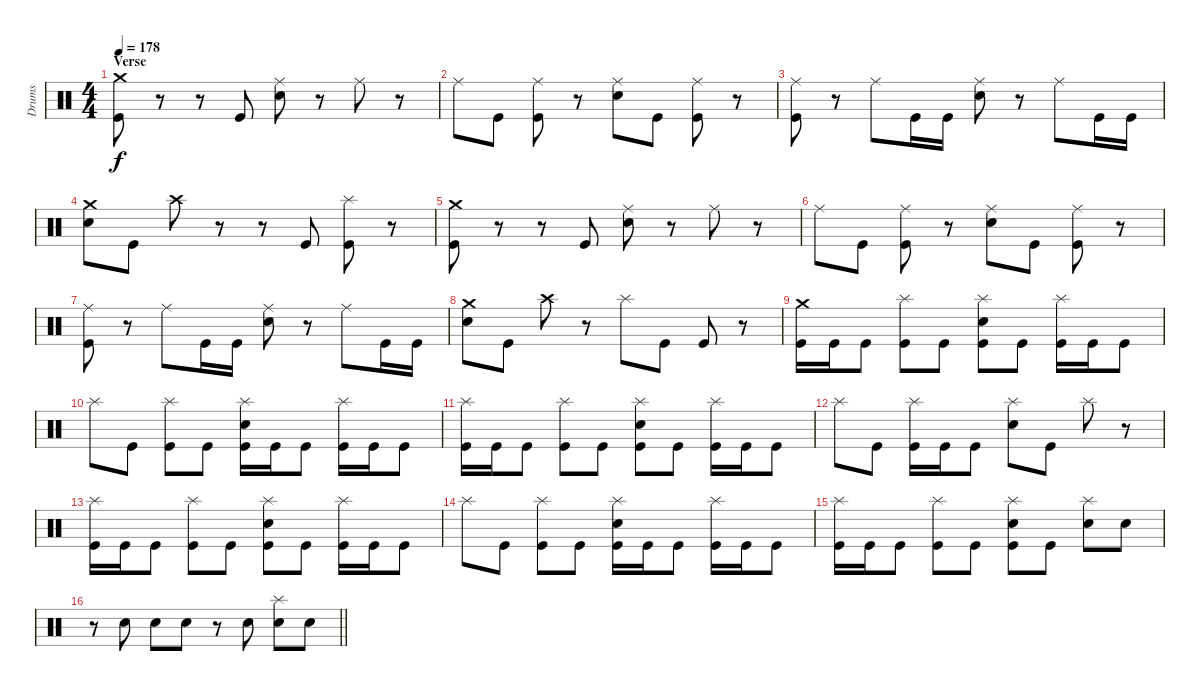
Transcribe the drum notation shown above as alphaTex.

\track ("Drums" "Drums") {instrument percussion}
\staff {score}
\articulation defaults
\ts (4 4)
\section ("" "Verse")
\tempo 178
\clef neutral
\ks c
("Crash medium (hit)" "Kick (hit)").8{dy f} r.8 r.8 "Kick (hit)".8 ("Ride (middle)" "Electric Snare (hit)").8 r.8 "Ride (middle)".8 r.8 |
"Ride (middle)".8 "Kick (hit)".8 ("Ride (middle)" "Kick (hit)").8 r.8 ("Ride (middle)" "Electric Snare (hit)").8 "Kick (hit)".8 ("Ride (middle)" "Kick (hit)").8 r.8 |
("Ride (middle)" "Kick (hit)").8 r.8 "Ride (middle)".8 "Kick (hit)".16 "Kick (hit)".16 ("Ride (middle)" "Electric Snare (hit)").8 r.8 "Ride (middle)".8 "Kick (hit)".16 "Kick (hit)".16 |
("Crash medium (hit)" "Electric Snare (hit)").8 "Kick (hit)".8 "Crash high (hit)".8 r.8 r.8 "Kick (hit)".8 ("Splash (hit)" "Kick (hit)").8 r.8 |
("Crash medium (hit)" "Kick (hit)").8 r.8 r.8 "Kick (hit)".8 ("Ride (middle)" "Electric Snare (hit)").8 r.8 "Ride (middle)".8 r.8 |
"Ride (middle)".8 "Kick (hit)".8 ("Ride (middle)" "Kick (hit)").8 r.8 ("Ride (middle)" "Electric Snare (hit)").8 "Kick (hit)".8 ("Ride (middle)" "Kick (hit)").8 r.8 |
("Ride (middle)" "Kick (hit)").8 r.8 "Ride (middle)".8 "Kick (hit)".16 "Kick (hit)".16 ("Ride (middle)" "Electric Snare (hit)").8 r.8 "Ride (middle)".8 "Kick (hit)".16 "Kick (hit)".16 |
("Crash medium (hit)" "Electric Snare (hit)").8 "Kick (hit)".8 "Crash high (hit)".8 r.8 "Splash (hit)".8 "Kick (hit)".8 "Kick (hit)".8 r.8 |
("Crash medium (hit)" "Kick (hit)").16 "Kick (hit)".16 "Kick (hit)".8 ("Splash (hit)" "Kick (hit)").8 "Kick (hit)".8 ("Splash (hit)" "Electric Snare (hit)" "Kick (hit)").8 "Kick (hit)".8 ("Splash (hit)" "Kick (hit)").16 "Kick (hit)".16 "Kick (hit)".8 |
"Splash (hit)".8 "Kick (hit)".8 ("Splash (hit)" "Kick (hit)").8 "Kick (hit)".8 ("Splash (hit)" "Electric Snare (hit)" "Kick (hit)").16 "Kick (hit)".16 "Kick (hit)".8 ("Splash (hit)" "Kick (hit)").16 "Kick (hit)".16 "Kick (hit)".8 |
("Splash (hit)" "Kick (hit)").16 "Kick (hit)".16 "Kick (hit)".8 ("Splash (hit)" "Kick (hit)").8 "Kick (hit)".8 ("Splash (hit)" "Electric Snare (hit)" "Kick (hit)").8 "Kick (hit)".8 ("Splash (hit)" "Kick (hit)").16 "Kick (hit)".16 "Kick (hit)".8 |
"Splash (hit)".8 "Kick (hit)".8 ("Splash (hit)" "Kick (hit)").16 "Kick (hit)".16 "Kick (hit)".8 ("Splash (hit)" "Electric Snare (hit)").8 "Kick (hit)".8 "Splash (hit)".8 r.8 |
("Splash (hit)" "Kick (hit)").16 "Kick (hit)".16 "Kick (hit)".8 ("Splash (hit)" "Kick (hit)").8 "Kick (hit)".8 ("Splash (hit)" "Electric Snare (hit)" "Kick (hit)").8 "Kick (hit)".8 ("Splash (hit)" "Kick (hit)").16 "Kick (hit)".16 "Kick (hit)".8 |
"Splash (hit)".8 "Kick (hit)".8 ("Splash (hit)" "Kick (hit)").8 "Kick (hit)".8 ("Splash (hit)" "Electric Snare (hit)" "Kick (hit)").16 "Kick (hit)".16 "Kick (hit)".8 ("Splash (hit)" "Kick (hit)").16 "Kick (hit)".16 "Kick (hit)".8 |
("Splash (hit)" "Kick (hit)").16 "Kick (hit)".16 "Kick (hit)".8 ("Splash (hit)" "Kick (hit)").8 "Kick (hit)".8 ("Splash (hit)" "Electric Snare (hit)" "Kick (hit)").8 "Kick (hit)".8 ("Splash (hit)" "Electric Snare (hit)").8 "Electric Snare (hit)".8 |
\barLineRight lightlight
r.8 "Electric Snare (hit)".8 "Electric Snare (hit)".8 "Electric Snare (hit)".8 r.8 "Electric Snare (hit)".8 ("Splash (hit)" "Electric Snare (hit)").8 "Electric Snare (hit)".8
